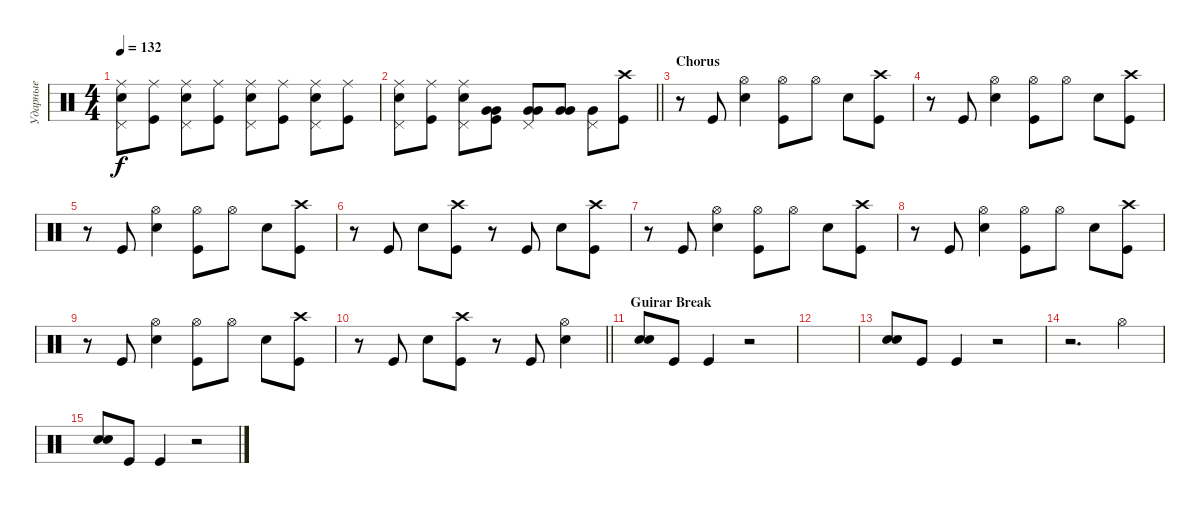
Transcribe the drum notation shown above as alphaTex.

\track ("Ударные" "Ударные") {instrument percussion}
\staff {score}
\articulation defaults
\ts (4 4)
\tempo 132
\clef neutral
\ks c
("Snare (hit) 2" "Pedal Hi-Hat (hit)" "Ride (middle)").8{dy f} ("Kick (hit)" "Ride (middle)").8 ("Snare (hit) 2" "Pedal Hi-Hat (hit)" "Ride (middle)").8 ("Kick (hit)" "Ride (middle)").8 ("Snare (hit) 2" "Pedal Hi-Hat (hit)" "Ride (middle)").8 ("Kick (hit)" "Ride (middle)").8 ("Snare (hit) 2" "Pedal Hi-Hat (hit)" "Ride (middle)").8 ("Kick (hit)" "Ride (middle)").8 |
\barLineRight lightlight
("Snare (hit) 2" "Pedal Hi-Hat (hit)" "Ride (middle)").8 ("Kick (hit)" "Ride (middle)").8 ("Snare (hit) 2" "Pedal Hi-Hat (hit)" "Ride (middle)").8 ("Kick (hit)" "Very Low Tom (hit)" "Very Low Tom (hit)").8{bd 120} ("Pedal Hi-Hat (hit)" "Very Low Tom (hit)" "Very Low Tom (hit)").8{bd 120} ("Very Low Tom (hit)" "Very Low Tom (hit)").8{bd 120} ("Pedal Hi-Hat (hit)" "Very Low Tom (hit)").8 ("Kick (hit)" "Crash high (hit)").8 |
\section ("" "Chorus")
r.8 "Kick (hit)".8 ("Snare (hit) 2" "Hi-Hat (open)").4 ("Hi-Hat (open)" "Kick (hit)").8 "Hi-Hat (open)".8 "Snare (hit) 2".8 ("Kick (hit)" "Crash high (hit)").8 |
r.8 "Kick (hit)".8 ("Snare (hit) 2" "Hi-Hat (open)").4 ("Hi-Hat (open)" "Kick (hit)").8 "Hi-Hat (open)".8 "Snare (hit) 2".8 ("Kick (hit)" "Crash high (hit)").8 |
r.8 "Kick (hit)".8 ("Snare (hit) 2" "Hi-Hat (open)").4 ("Hi-Hat (open)" "Kick (hit)").8 "Hi-Hat (open)".8 "Snare (hit) 2".8 ("Kick (hit)" "Crash high (hit)").8 |
r.8 "Kick (hit)".8 "Snare (hit) 2".8 ("Crash high (hit)" "Kick (hit)").8 r.8 "Kick (hit)".8 "Snare (hit) 2".8 ("Kick (hit)" "Crash high (hit)").8 |
r.8 "Kick (hit)".8 ("Snare (hit) 2" "Hi-Hat (open)").4 ("Hi-Hat (open)" "Kick (hit)").8 "Hi-Hat (open)".8 "Snare (hit) 2".8 ("Kick (hit)" "Crash high (hit)").8 |
r.8 "Kick (hit)".8 ("Snare (hit) 2" "Hi-Hat (open)").4 ("Hi-Hat (open)" "Kick (hit)").8 "Hi-Hat (open)".8 "Snare (hit) 2".8 ("Kick (hit)" "Crash high (hit)").8 |
r.8 "Kick (hit)".8 ("Snare (hit) 2" "Hi-Hat (open)").4 ("Hi-Hat (open)" "Kick (hit)").8 "Hi-Hat (open)".8 "Snare (hit) 2".8 ("Kick (hit)" "Crash high (hit)").8 |
\barLineRight lightlight
r.8 "Kick (hit)".8 "Snare (hit) 2".8 ("Crash high (hit)" "Kick (hit)").8 r.8 "Kick (hit)".8 ("Snare (hit) 2" "Hi-Hat (open)").4 |
\section ("" "Guirar Break")
("Snare (hit) 2" "Snare (hit) 2").8{bd 240} "Kick (hit)".8 "Kick (hit)".4 r.2 |
|
("Snare (hit) 2" "Snare (hit) 2").8{bd 240} "Kick (hit)".8 "Kick (hit)".4 r.2 |
r.2{d} "Hi-Hat (open)".4 |
("Snare (hit) 2" "Snare (hit) 2").8{bd 240} "Kick (hit)".8 "Kick (hit)".4 r.2
